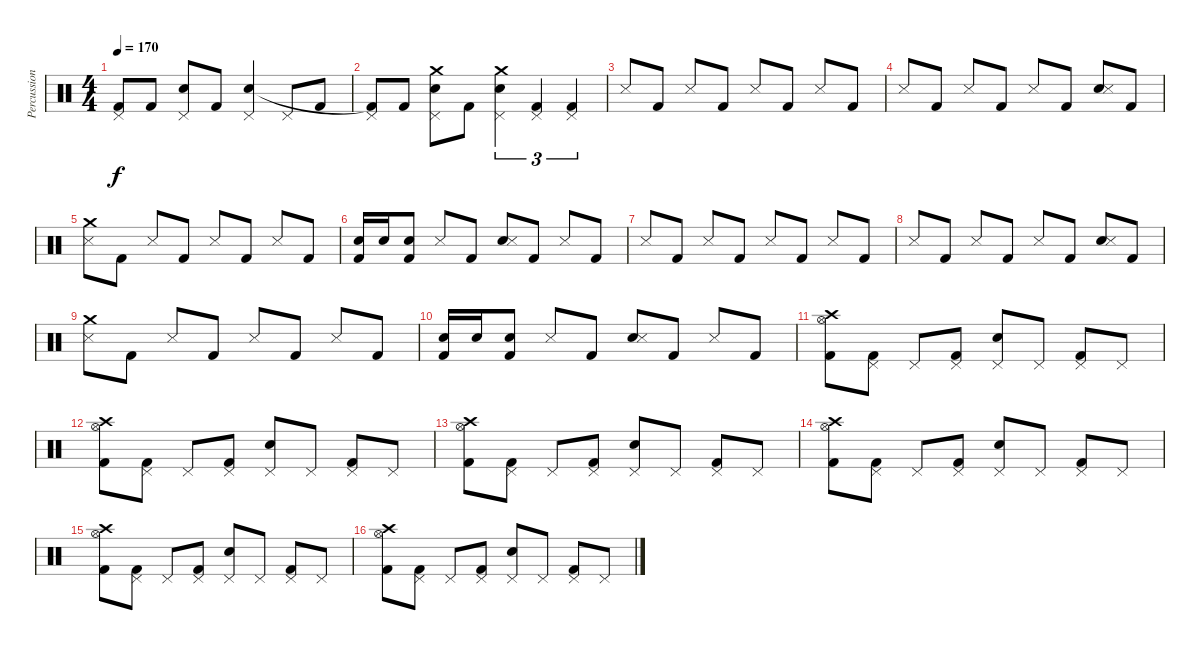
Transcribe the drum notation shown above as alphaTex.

\track ("Percussion" "Percussion") {instrument percussion}
\staff {score}
\articulation defaults
\ts (4 4)
\tempo 170
\clef neutral
\ks c
("Pedal Hi-Hat (hit)" "Kick (hit) 2").8{dy f} "Kick (hit) 2".8 ("Pedal Hi-Hat (hit)" "Electric Snare (hit)").8 "Kick (hit) 2".8 ("Pedal Hi-Hat (hit)" "Electric Snare (hit)").4 "Pedal Hi-Hat (hit)".8 "Kick (hit) 2".8 |
("Pedal Hi-Hat (hit)" "Kick (hit) 2"{t}).8 "Kick (hit) 2".8 ("Pedal Hi-Hat (hit)" "Electric Snare (hit)" "Crash medium (hit)").8 "Kick (hit) 2".8 ("Pedal Hi-Hat (hit)" "Electric Snare (hit)" "Crash medium (hit)").4{tu (3 2)} ("Pedal Hi-Hat (hit)" "Kick (hit) 2").4{tu (3 2)} ("Pedal Hi-Hat (hit)" "Kick (hit) 2").4{tu (3 2)} |
"Metronome (hit)".8 "Kick (hit) 2".8 "Metronome (hit)".8 "Kick (hit) 2".8 "Metronome (hit)".8 "Kick (hit) 2".8 "Metronome (hit)".8 "Kick (hit) 2".8 |
"Metronome (hit)".8 "Kick (hit) 2".8 "Metronome (hit)".8 "Kick (hit) 2".8 "Metronome (hit)".8 "Kick (hit) 2".8 ("Electric Snare (hit)" "Metronome (hit)").8 "Kick (hit) 2".8 |
("Crash medium (hit)" "Metronome (hit)").8 "Kick (hit) 2".8 "Metronome (hit)".8 "Kick (hit) 2".8 "Metronome (hit)".8 "Kick (hit) 2".8 "Metronome (hit)".8 "Kick (hit) 2".8 |
("Electric Snare (hit)" "Kick (hit) 2").16 "Electric Snare (hit)".16 ("Electric Snare (hit)" "Kick (hit) 2").8 "Metronome (hit)".8 "Kick (hit) 2".8 ("Electric Snare (hit)" "Metronome (hit)").8 "Kick (hit) 2".8 "Metronome (hit)".8 "Kick (hit) 2".8 |
"Metronome (hit)".8 "Kick (hit) 2".8 "Metronome (hit)".8 "Kick (hit) 2".8 "Metronome (hit)".8 "Kick (hit) 2".8 "Metronome (hit)".8 "Kick (hit) 2".8 |
"Metronome (hit)".8 "Kick (hit) 2".8 "Metronome (hit)".8 "Kick (hit) 2".8 "Metronome (hit)".8 "Kick (hit) 2".8 ("Electric Snare (hit)" "Metronome (hit)").8 "Kick (hit) 2".8 |
("Crash medium (hit)" "Metronome (hit)").8 "Kick (hit) 2".8 "Metronome (hit)".8 "Kick (hit) 2".8 "Metronome (hit)".8 "Kick (hit) 2".8 "Metronome (hit)".8 "Kick (hit) 2".8 |
("Electric Snare (hit)" "Kick (hit) 2").16 "Electric Snare (hit)".16 ("Electric Snare (hit)" "Kick (hit) 2").8 "Metronome (hit)".8 "Kick (hit) 2".8 ("Electric Snare (hit)" "Metronome (hit)").8 "Kick (hit) 2".8 "Metronome (hit)".8 "Kick (hit) 2".8 |
("Hi-Hat (open)" "Kick (hit) 2" "Crash high (hit)").8 ("Pedal Hi-Hat (hit)" "Kick (hit) 2").8 "Pedal Hi-Hat (hit)".8 ("Pedal Hi-Hat (hit)" "Kick (hit) 2").8 ("Pedal Hi-Hat (hit)" "Electric Snare (hit)").8 "Pedal Hi-Hat (hit)".8 ("Pedal Hi-Hat (hit)" "Kick (hit) 2").8 "Pedal Hi-Hat (hit)".8 |
("Hi-Hat (open)" "Kick (hit) 2" "Crash high (hit)").8 ("Pedal Hi-Hat (hit)" "Kick (hit) 2").8 "Pedal Hi-Hat (hit)".8 ("Pedal Hi-Hat (hit)" "Kick (hit) 2").8 ("Pedal Hi-Hat (hit)" "Electric Snare (hit)").8 "Pedal Hi-Hat (hit)".8 ("Pedal Hi-Hat (hit)" "Kick (hit) 2").8 "Pedal Hi-Hat (hit)".8 |
("Hi-Hat (open)" "Kick (hit) 2" "Crash high (hit)").8 ("Pedal Hi-Hat (hit)" "Kick (hit) 2").8 "Pedal Hi-Hat (hit)".8 ("Pedal Hi-Hat (hit)" "Kick (hit) 2").8 ("Pedal Hi-Hat (hit)" "Electric Snare (hit)").8 "Pedal Hi-Hat (hit)".8 ("Pedal Hi-Hat (hit)" "Kick (hit) 2").8 "Pedal Hi-Hat (hit)".8 |
("Hi-Hat (open)" "Kick (hit) 2" "Crash high (hit)").8 ("Pedal Hi-Hat (hit)" "Kick (hit) 2").8 "Pedal Hi-Hat (hit)".8 ("Pedal Hi-Hat (hit)" "Kick (hit) 2").8 ("Pedal Hi-Hat (hit)" "Electric Snare (hit)").8 "Pedal Hi-Hat (hit)".8 ("Pedal Hi-Hat (hit)" "Kick (hit) 2").8 "Pedal Hi-Hat (hit)".8 |
("Hi-Hat (open)" "Kick (hit) 2" "Crash high (hit)").8 ("Pedal Hi-Hat (hit)" "Kick (hit) 2").8 "Pedal Hi-Hat (hit)".8 ("Pedal Hi-Hat (hit)" "Kick (hit) 2").8 ("Pedal Hi-Hat (hit)" "Electric Snare (hit)").8 "Pedal Hi-Hat (hit)".8 ("Pedal Hi-Hat (hit)" "Kick (hit) 2").8 "Pedal Hi-Hat (hit)".8 |
("Hi-Hat (open)" "Kick (hit) 2" "Crash high (hit)").8 ("Pedal Hi-Hat (hit)" "Kick (hit) 2").8 "Pedal Hi-Hat (hit)".8 ("Pedal Hi-Hat (hit)" "Kick (hit) 2").8 ("Pedal Hi-Hat (hit)" "Electric Snare (hit)").8 "Pedal Hi-Hat (hit)".8 ("Pedal Hi-Hat (hit)" "Kick (hit) 2").8 "Pedal Hi-Hat (hit)".8
